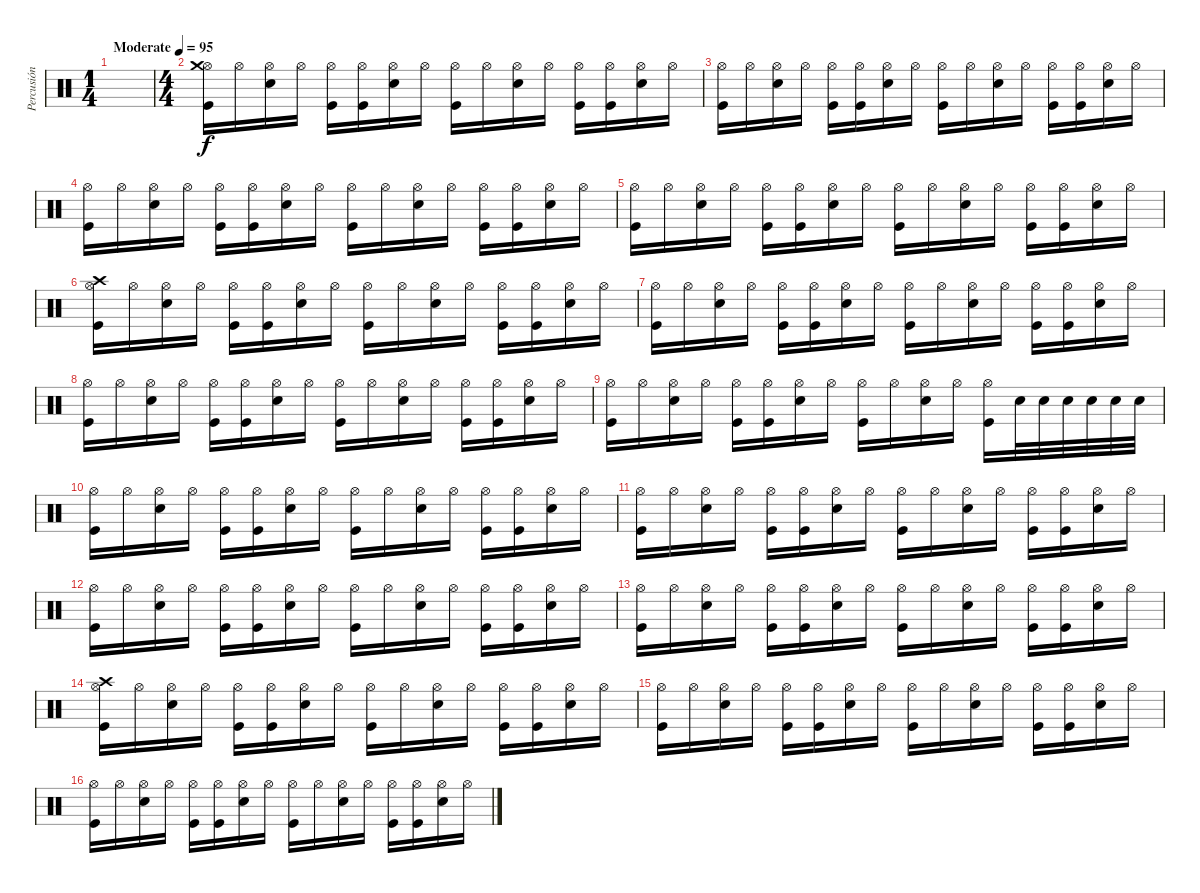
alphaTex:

\track ("Percusión" "Percusión") {instrument percussion}
\staff {score}
\articulation defaults
\ts (1 4)
\tempo (95 "Moderate")
\clef neutral
\ks c
|
\ts (4 4)
("Kick (hit)" "Hi-Hat (open)" "Crash medium (hit)").16 "Hi-Hat (open)".16 ("Snare (hit) 2" "Hi-Hat (open)").16 "Hi-Hat (open)".16 ("Kick (hit)" "Hi-Hat (open)").16 ("Kick (hit)" "Hi-Hat (open)").16 ("Snare (hit) 2" "Hi-Hat (open)").16 "Hi-Hat (open)".16 ("Kick (hit)" "Hi-Hat (open)").16 "Hi-Hat (open)".16 ("Snare (hit) 2" "Hi-Hat (open)").16 "Hi-Hat (open)".16 ("Kick (hit)" "Hi-Hat (open)").16 ("Kick (hit)" "Hi-Hat (open)").16 ("Snare (hit) 2" "Hi-Hat (open)").16 "Hi-Hat (open)".16 |
("Kick (hit)" "Hi-Hat (open)").16 "Hi-Hat (open)".16 ("Snare (hit) 2" "Hi-Hat (open)").16 "Hi-Hat (open)".16 ("Kick (hit)" "Hi-Hat (open)").16 ("Kick (hit)" "Hi-Hat (open)").16 ("Snare (hit) 2" "Hi-Hat (open)").16 "Hi-Hat (open)".16 ("Kick (hit)" "Hi-Hat (open)").16 "Hi-Hat (open)".16 ("Snare (hit) 2" "Hi-Hat (open)").16 "Hi-Hat (open)".16 ("Kick (hit)" "Hi-Hat (open)").16 ("Kick (hit)" "Hi-Hat (open)").16 ("Snare (hit) 2" "Hi-Hat (open)").16 "Hi-Hat (open)".16 |
("Kick (hit)" "Hi-Hat (open)").16 "Hi-Hat (open)".16 ("Snare (hit) 2" "Hi-Hat (open)").16 "Hi-Hat (open)".16 ("Kick (hit)" "Hi-Hat (open)").16 ("Kick (hit)" "Hi-Hat (open)").16 ("Snare (hit) 2" "Hi-Hat (open)").16 "Hi-Hat (open)".16 ("Kick (hit)" "Hi-Hat (open)").16 "Hi-Hat (open)".16 ("Snare (hit) 2" "Hi-Hat (open)").16 "Hi-Hat (open)".16 ("Kick (hit)" "Hi-Hat (open)").16 ("Kick (hit)" "Hi-Hat (open)").16 ("Snare (hit) 2" "Hi-Hat (open)").16 "Hi-Hat (open)".16 |
("Kick (hit)" "Hi-Hat (open)").16 "Hi-Hat (open)".16 ("Snare (hit) 2" "Hi-Hat (open)").16 "Hi-Hat (open)".16 ("Kick (hit)" "Hi-Hat (open)").16 ("Kick (hit)" "Hi-Hat (open)").16 ("Snare (hit) 2" "Hi-Hat (open)").16 "Hi-Hat (open)".16 ("Kick (hit)" "Hi-Hat (open)").16 "Hi-Hat (open)".16 ("Snare (hit) 2" "Hi-Hat (open)").16 "Hi-Hat (open)".16 ("Kick (hit)" "Hi-Hat (open)").16 ("Kick (hit)" "Hi-Hat (open)").16 ("Snare (hit) 2" "Hi-Hat (open)").16 "Hi-Hat (open)".16 |
("Kick (hit)" "Hi-Hat (open)" "Crash high (hit)").16 "Hi-Hat (open)".16 ("Snare (hit) 2" "Hi-Hat (open)").16 "Hi-Hat (open)".16 ("Kick (hit)" "Hi-Hat (open)").16 ("Kick (hit)" "Hi-Hat (open)").16 ("Snare (hit) 2" "Hi-Hat (open)").16 "Hi-Hat (open)".16 ("Kick (hit)" "Hi-Hat (open)").16 "Hi-Hat (open)".16 ("Snare (hit) 2" "Hi-Hat (open)").16 "Hi-Hat (open)".16 ("Kick (hit)" "Hi-Hat (open)").16 ("Kick (hit)" "Hi-Hat (open)").16 ("Snare (hit) 2" "Hi-Hat (open)").16 "Hi-Hat (open)".16 |
("Kick (hit)" "Hi-Hat (open)").16 "Hi-Hat (open)".16 ("Snare (hit) 2" "Hi-Hat (open)").16 "Hi-Hat (open)".16 ("Kick (hit)" "Hi-Hat (open)").16 ("Kick (hit)" "Hi-Hat (open)").16 ("Snare (hit) 2" "Hi-Hat (open)").16 "Hi-Hat (open)".16 ("Kick (hit)" "Hi-Hat (open)").16 "Hi-Hat (open)".16 ("Snare (hit) 2" "Hi-Hat (open)").16 "Hi-Hat (open)".16 ("Kick (hit)" "Hi-Hat (open)").16 ("Kick (hit)" "Hi-Hat (open)").16 ("Snare (hit) 2" "Hi-Hat (open)").16 "Hi-Hat (open)".16 |
("Kick (hit)" "Hi-Hat (open)").16 "Hi-Hat (open)".16 ("Snare (hit) 2" "Hi-Hat (open)").16 "Hi-Hat (open)".16 ("Kick (hit)" "Hi-Hat (open)").16 ("Kick (hit)" "Hi-Hat (open)").16 ("Snare (hit) 2" "Hi-Hat (open)").16 "Hi-Hat (open)".16 ("Kick (hit)" "Hi-Hat (open)").16 "Hi-Hat (open)".16 ("Snare (hit) 2" "Hi-Hat (open)").16 "Hi-Hat (open)".16 ("Kick (hit)" "Hi-Hat (open)").16 ("Kick (hit)" "Hi-Hat (open)").16 ("Snare (hit) 2" "Hi-Hat (open)").16 "Hi-Hat (open)".16 |
("Kick (hit)" "Hi-Hat (open)").16 "Hi-Hat (open)".16 ("Snare (hit) 2" "Hi-Hat (open)").16 "Hi-Hat (open)".16 ("Kick (hit)" "Hi-Hat (open)").16 ("Kick (hit)" "Hi-Hat (open)").16 ("Snare (hit) 2" "Hi-Hat (open)").16 "Hi-Hat (open)".16 ("Kick (hit)" "Hi-Hat (open)").16 "Hi-Hat (open)".16 ("Snare (hit) 2" "Hi-Hat (open)").16 "Hi-Hat (open)".16 ("Kick (hit)" "Hi-Hat (open)").16 "Snare (hit) 2".32 "Snare (hit) 2".32 "Snare (hit) 2".32 "Snare (hit) 2".32 "Snare (hit) 2".32 "Snare (hit) 2".32 |
("Kick (hit)" "Hi-Hat (open)").16 "Hi-Hat (open)".16 ("Snare (hit) 2" "Hi-Hat (open)").16 "Hi-Hat (open)".16 ("Kick (hit)" "Hi-Hat (open)").16 ("Kick (hit)" "Hi-Hat (open)").16 ("Snare (hit) 2" "Hi-Hat (open)").16 "Hi-Hat (open)".16 ("Kick (hit)" "Hi-Hat (open)").16 "Hi-Hat (open)".16 ("Snare (hit) 2" "Hi-Hat (open)").16 "Hi-Hat (open)".16 ("Kick (hit)" "Hi-Hat (open)").16 ("Kick (hit)" "Hi-Hat (open)").16 ("Snare (hit) 2" "Hi-Hat (open)").16 "Hi-Hat (open)".16 |
("Kick (hit)" "Hi-Hat (open)").16 "Hi-Hat (open)".16 ("Snare (hit) 2" "Hi-Hat (open)").16 "Hi-Hat (open)".16 ("Kick (hit)" "Hi-Hat (open)").16 ("Kick (hit)" "Hi-Hat (open)").16 ("Snare (hit) 2" "Hi-Hat (open)").16 "Hi-Hat (open)".16 ("Kick (hit)" "Hi-Hat (open)").16 "Hi-Hat (open)".16 ("Snare (hit) 2" "Hi-Hat (open)").16 "Hi-Hat (open)".16 ("Kick (hit)" "Hi-Hat (open)").16 ("Kick (hit)" "Hi-Hat (open)").16 ("Snare (hit) 2" "Hi-Hat (open)").16 "Hi-Hat (open)".16 |
("Kick (hit)" "Hi-Hat (open)").16 "Hi-Hat (open)".16 ("Snare (hit) 2" "Hi-Hat (open)").16 "Hi-Hat (open)".16 ("Kick (hit)" "Hi-Hat (open)").16 ("Kick (hit)" "Hi-Hat (open)").16 ("Snare (hit) 2" "Hi-Hat (open)").16 "Hi-Hat (open)".16 ("Kick (hit)" "Hi-Hat (open)").16 "Hi-Hat (open)".16 ("Snare (hit) 2" "Hi-Hat (open)").16 "Hi-Hat (open)".16 ("Kick (hit)" "Hi-Hat (open)").16 ("Kick (hit)" "Hi-Hat (open)").16 ("Snare (hit) 2" "Hi-Hat (open)").16 "Hi-Hat (open)".16 |
("Kick (hit)" "Hi-Hat (open)").16 "Hi-Hat (open)".16 ("Snare (hit) 2" "Hi-Hat (open)").16 "Hi-Hat (open)".16 ("Kick (hit)" "Hi-Hat (open)").16 ("Kick (hit)" "Hi-Hat (open)").16 ("Snare (hit) 2" "Hi-Hat (open)").16 "Hi-Hat (open)".16 ("Kick (hit)" "Hi-Hat (open)").16 "Hi-Hat (open)".16 ("Snare (hit) 2" "Hi-Hat (open)").16 "Hi-Hat (open)".16 ("Kick (hit)" "Hi-Hat (open)").16 ("Kick (hit)" "Hi-Hat (open)").16 ("Snare (hit) 2" "Hi-Hat (open)").16 "Hi-Hat (open)".16 |
("Kick (hit)" "Hi-Hat (open)" "Crash high (hit)").16 "Hi-Hat (open)".16 ("Snare (hit) 2" "Hi-Hat (open)").16 "Hi-Hat (open)".16 ("Kick (hit)" "Hi-Hat (open)").16 ("Kick (hit)" "Hi-Hat (open)").16 ("Snare (hit) 2" "Hi-Hat (open)").16 "Hi-Hat (open)".16 ("Kick (hit)" "Hi-Hat (open)").16 "Hi-Hat (open)".16 ("Snare (hit) 2" "Hi-Hat (open)").16 "Hi-Hat (open)".16 ("Kick (hit)" "Hi-Hat (open)").16 ("Kick (hit)" "Hi-Hat (open)").16 ("Snare (hit) 2" "Hi-Hat (open)").16 "Hi-Hat (open)".16 |
("Kick (hit)" "Hi-Hat (open)").16 "Hi-Hat (open)".16 ("Snare (hit) 2" "Hi-Hat (open)").16 "Hi-Hat (open)".16 ("Kick (hit)" "Hi-Hat (open)").16 ("Kick (hit)" "Hi-Hat (open)").16 ("Snare (hit) 2" "Hi-Hat (open)").16 "Hi-Hat (open)".16 ("Kick (hit)" "Hi-Hat (open)").16 "Hi-Hat (open)".16 ("Snare (hit) 2" "Hi-Hat (open)").16 "Hi-Hat (open)".16 ("Kick (hit)" "Hi-Hat (open)").16 ("Kick (hit)" "Hi-Hat (open)").16 ("Snare (hit) 2" "Hi-Hat (open)").16 "Hi-Hat (open)".16 |
("Kick (hit)" "Hi-Hat (open)").16 "Hi-Hat (open)".16 ("Snare (hit) 2" "Hi-Hat (open)").16 "Hi-Hat (open)".16 ("Kick (hit)" "Hi-Hat (open)").16 ("Kick (hit)" "Hi-Hat (open)").16 ("Snare (hit) 2" "Hi-Hat (open)").16 "Hi-Hat (open)".16 ("Kick (hit)" "Hi-Hat (open)").16 "Hi-Hat (open)".16 ("Snare (hit) 2" "Hi-Hat (open)").16 "Hi-Hat (open)".16 ("Kick (hit)" "Hi-Hat (open)").16 ("Kick (hit)" "Hi-Hat (open)").16 ("Snare (hit) 2" "Hi-Hat (open)").16 "Hi-Hat (open)".16
